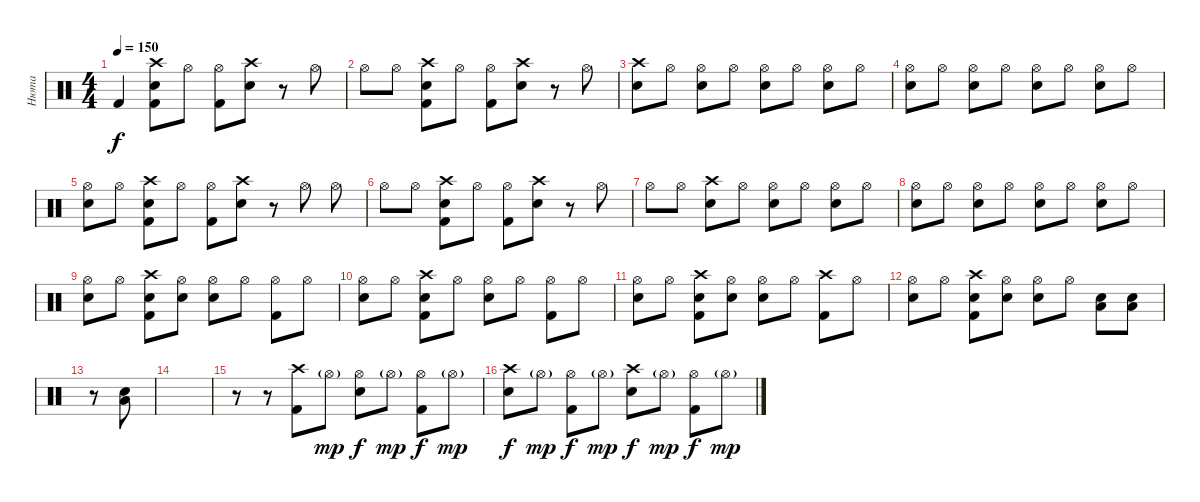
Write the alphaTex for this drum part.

\track ("Нюта" "Нюта") {instrument percussion}
\staff {score}
\articulation defaults
\ts (4 4)
\tempo 150
\clef neutral
\ks c "Kick (hit) 2".4{dy f}
("Snare (hit)" "Kick (hit) 2" "Crash high (hit)").8 "Hi-Hat (open)".8 ("Hi-Hat (open)" "Kick (hit) 2").8 ("Crash high (hit)" "Electric Snare (hit)").8 r.8 "Hi-Hat (open)".8 |
"Hi-Hat (open)".8 "Hi-Hat (open)".8 ("Snare (hit)" "Kick (hit) 2" "Crash high (hit)").8 "Hi-Hat (open)".8 ("Hi-Hat (open)" "Kick (hit) 2").8 ("Crash high (hit)" "Electric Snare (hit)").8 r.8 "Hi-Hat (open)".8 |
("Crash high (hit)" "Electric Snare (hit)").8 "Hi-Hat (open)".8 ("Hi-Hat (open)" "Electric Snare (hit)").8 "Hi-Hat (open)".8 ("Hi-Hat (open)" "Electric Snare (hit)").8 "Hi-Hat (open)".8 ("Hi-Hat (open)" "Electric Snare (hit)").8 "Hi-Hat (open)".8 |
("Hi-Hat (open)" "Electric Snare (hit)").8 "Hi-Hat (open)".8 ("Hi-Hat (open)" "Electric Snare (hit)").8 "Hi-Hat (open)".8 ("Hi-Hat (open)" "Electric Snare (hit)").8 "Hi-Hat (open)".8 ("Hi-Hat (open)" "Electric Snare (hit)").8 "Hi-Hat (open)".8 |
("Hi-Hat (open)" "Electric Snare (hit)").8 "Hi-Hat (open)".8 ("Snare (hit)" "Kick (hit) 2" "Crash high (hit)").8 "Hi-Hat (open)".8 ("Hi-Hat (open)" "Kick (hit) 2").8 ("Crash high (hit)" "Electric Snare (hit)").8 r.8 "Hi-Hat (open)".8 "Hi-Hat (open)".8 |
"Hi-Hat (open)".8 "Hi-Hat (open)".8 ("Snare (hit)" "Kick (hit) 2" "Crash high (hit)").8 "Hi-Hat (open)".8 ("Hi-Hat (open)" "Kick (hit) 2").8 ("Crash high (hit)" "Electric Snare (hit)").8 r.8 "Hi-Hat (open)".8 |
"Hi-Hat (open)".8 "Hi-Hat (open)".8 ("Crash high (hit)" "Electric Snare (hit)").8 "Hi-Hat (open)".8 ("Hi-Hat (open)" "Electric Snare (hit)").8 "Hi-Hat (open)".8 ("Hi-Hat (open)" "Electric Snare (hit)").8 "Hi-Hat (open)".8 |
("Hi-Hat (open)" "Electric Snare (hit)").8 "Hi-Hat (open)".8 ("Hi-Hat (open)" "Electric Snare (hit)").8 "Hi-Hat (open)".8 ("Hi-Hat (open)" "Electric Snare (hit)").8 "Hi-Hat (open)".8 ("Hi-Hat (open)" "Electric Snare (hit)").8 "Hi-Hat (open)".8 |
("Hi-Hat (open)" "Electric Snare (hit)").8 "Hi-Hat (open)".8 ("Crash high (hit)" "Kick (hit) 2" "Snare (hit)").8 ("Snare (hit)" "Hi-Hat (open)").8 ("Hi-Hat (open)" "Electric Snare (hit)").8 "Hi-Hat (open)".8 ("Hi-Hat (open)" "Kick (hit) 2").8 "Hi-Hat (open)".8 |
("Hi-Hat (open)" "Electric Snare (hit)").8 "Hi-Hat (open)".8 ("Crash high (hit)" "Kick (hit) 2" "Snare (hit)").8 "Hi-Hat (open)".8 ("Hi-Hat (open)" "Electric Snare (hit)").8 "Hi-Hat (open)".8 ("Hi-Hat (open)" "Kick (hit) 2").8 "Hi-Hat (open)".8 |
("Hi-Hat (open)" "Electric Snare (hit)").8 "Hi-Hat (open)".8 ("Crash high (hit)" "Kick (hit) 2" "Snare (hit)").8 ("Snare (hit)" "Hi-Hat (open)").8 ("Hi-Hat (open)" "Electric Snare (hit)").8 "Hi-Hat (open)".8 ("Crash high (hit)" "Kick (hit) 2").8 "Hi-Hat (open)".8 |
("Hi-Hat (open)" "Electric Snare (hit)").8 "Hi-Hat (open)".8 ("Crash high (hit)" "Kick (hit) 2" "Snare (hit)").8 ("Snare (hit)" "Hi-Hat (open)").8 ("Hi-Hat (open)" "Electric Snare (hit)").8 "Hi-Hat (open)".8 ("Electric Snare (hit)" "Low Tom (hit)").8 ("Electric Snare (hit)" "Low Tom (hit)").8 |
r.8 ("Electric Snare (hit)" "Low Tom (hit)").8 |
|
r.8 r.8 ("Crash high (hit)" "Kick (hit) 2").8 "Hi-Hat (open)"{g}.8{dy mp} ("Hi-Hat (open)" "Electric Snare (hit)").8{dy f} "Hi-Hat (open)"{g}.8{dy mp} ("Hi-Hat (open)" "Kick (hit) 2").8{dy f} "Hi-Hat (open)"{g}.8{dy mp} |
("Crash high (hit)" "Electric Snare (hit)").8{dy f} "Hi-Hat (open)"{g}.8{dy mp} ("Hi-Hat (open)" "Kick (hit) 2").8{dy f} "Hi-Hat (open)"{g}.8{dy mp} ("Crash high (hit)" "Electric Snare (hit)").8{dy f} "Hi-Hat (open)"{g}.8{dy mp} ("Hi-Hat (open)" "Kick (hit) 2").8{dy f} "Hi-Hat (open)"{g}.8{dy mp}
